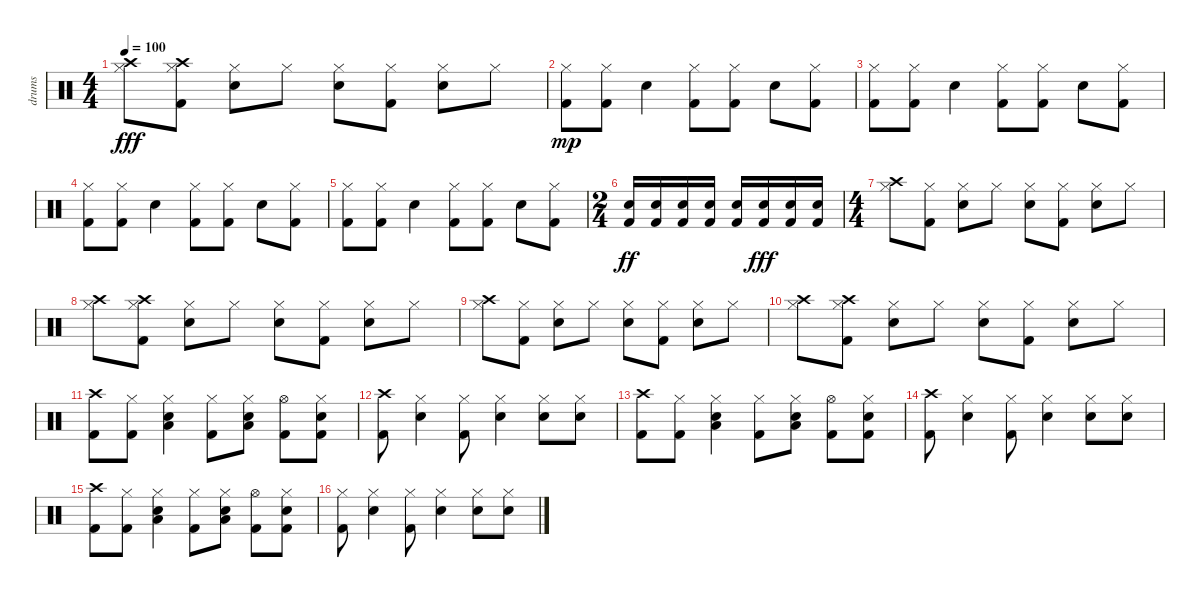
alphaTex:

\track ("drums" "drums") {instrument percussion}
\staff {score}
\articulation defaults
\ts (4 4)
\tempo 100
\clef neutral
\ks c
("Crash high (hit)" "Hi-Hat (closed)").8{dy fff} ("Crash high (hit)" "Hi-Hat (closed)" "Kick (hit) 2").8 ("Hi-Hat (closed)" "Electric Snare (hit)").8 "Hi-Hat (closed)".8 ("Hi-Hat (closed)" "Electric Snare (hit)").8 ("Hi-Hat (closed)" "Kick (hit) 2").8 ("Hi-Hat (closed)" "Electric Snare (hit)").8 "Hi-Hat (closed)".8 |
("Hi-Hat (closed)" "Kick (hit) 2").8{dy mp} ("Hi-Hat (closed)" "Kick (hit) 2").8 "Electric Snare (hit)".4 ("Hi-Hat (closed)" "Kick (hit) 2").8 ("Hi-Hat (closed)" "Kick (hit) 2").8 "Electric Snare (hit)".8 ("Hi-Hat (closed)" "Kick (hit) 2").8 |
("Hi-Hat (closed)" "Kick (hit) 2").8 ("Hi-Hat (closed)" "Kick (hit) 2").8 "Electric Snare (hit)".4 ("Hi-Hat (closed)" "Kick (hit) 2").8 ("Hi-Hat (closed)" "Kick (hit) 2").8 "Electric Snare (hit)".8 ("Hi-Hat (closed)" "Kick (hit) 2").8 |
("Hi-Hat (closed)" "Kick (hit) 2").8 ("Hi-Hat (closed)" "Kick (hit) 2").8 "Electric Snare (hit)".4 ("Hi-Hat (closed)" "Kick (hit) 2").8 ("Hi-Hat (closed)" "Kick (hit) 2").8 "Electric Snare (hit)".8 ("Hi-Hat (closed)" "Kick (hit) 2").8 |
("Hi-Hat (closed)" "Kick (hit) 2").8 ("Hi-Hat (closed)" "Kick (hit) 2").8 "Electric Snare (hit)".4 ("Hi-Hat (closed)" "Kick (hit) 2").8 ("Hi-Hat (closed)" "Kick (hit) 2").8 "Electric Snare (hit)".8 ("Hi-Hat (closed)" "Kick (hit) 2").8 |
\ts (2 4)
("Electric Snare (hit)" "Kick (hit) 2").16{dy ff} ("Electric Snare (hit)" "Kick (hit) 2").16 ("Electric Snare (hit)" "Kick (hit) 2").16 ("Electric Snare (hit)" "Kick (hit) 2").16 ("Electric Snare (hit)" "Kick (hit) 2").16 ("Electric Snare (hit)" "Kick (hit) 2").16{dy fff} ("Electric Snare (hit)" "Kick (hit) 2").16 ("Electric Snare (hit)" "Kick (hit) 2").16 |
\ts (4 4)
("Crash high (hit)" "Hi-Hat (closed)").8 ("Hi-Hat (closed)" "Kick (hit) 2").8 ("Hi-Hat (closed)" "Electric Snare (hit)").8 "Hi-Hat (closed)".8 ("Hi-Hat (closed)" "Electric Snare (hit)").8 ("Hi-Hat (closed)" "Kick (hit) 2").8 ("Hi-Hat (closed)" "Electric Snare (hit)").8 "Hi-Hat (closed)".8 |
("Crash high (hit)" "Hi-Hat (closed)").8 ("Crash high (hit)" "Hi-Hat (closed)" "Kick (hit) 2").8 ("Hi-Hat (closed)" "Electric Snare (hit)").8 "Hi-Hat (closed)".8 ("Hi-Hat (closed)" "Electric Snare (hit)").8 ("Hi-Hat (closed)" "Kick (hit) 2").8 ("Hi-Hat (closed)" "Electric Snare (hit)").8 "Hi-Hat (closed)".8 |
("Crash high (hit)" "Hi-Hat (closed)").8 ("Hi-Hat (closed)" "Kick (hit) 2").8 ("Hi-Hat (closed)" "Electric Snare (hit)").8 "Hi-Hat (closed)".8 ("Hi-Hat (closed)" "Electric Snare (hit)").8 ("Hi-Hat (closed)" "Kick (hit) 2").8 ("Hi-Hat (closed)" "Electric Snare (hit)").8 "Hi-Hat (closed)".8 |
("Crash high (hit)" "Hi-Hat (closed)").8 ("Crash high (hit)" "Hi-Hat (closed)" "Kick (hit) 2").8 ("Hi-Hat (closed)" "Electric Snare (hit)").8 "Hi-Hat (closed)".8 ("Hi-Hat (closed)" "Electric Snare (hit)").8 ("Hi-Hat (closed)" "Kick (hit) 2").8 ("Hi-Hat (closed)" "Electric Snare (hit)").8 "Hi-Hat (closed)".8 |
("Crash high (hit)" "Kick (hit) 2").8 ("Hi-Hat (closed)" "Kick (hit) 2").8 ("Hi-Hat (closed)" "Low Floor Tom (hit)" "Electric Snare (hit)").4 ("Hi-Hat (closed)" "Kick (hit) 2").8 ("Hi-Hat (closed)" "Low Floor Tom (hit)" "Electric Snare (hit)").8 ("Hi-Hat (open)" "Kick (hit) 2").8 ("Hi-Hat (closed)" "Electric Snare (hit)" "Kick (hit) 2").8 |
("Crash high (hit)" "Kick (hit) 2").8 ("Hi-Hat (closed)" "Electric Snare (hit)").4 ("Hi-Hat (closed)" "Kick (hit) 2").8 ("Hi-Hat (closed)" "Electric Snare (hit)").4 ("Hi-Hat (closed)" "Electric Snare (hit)").8 ("Hi-Hat (closed)" "Electric Snare (hit)").8 |
("Crash high (hit)" "Kick (hit) 2").8 ("Hi-Hat (closed)" "Kick (hit) 2").8 ("Hi-Hat (closed)" "Low Floor Tom (hit)" "Electric Snare (hit)").4 ("Hi-Hat (closed)" "Kick (hit) 2").8 ("Hi-Hat (closed)" "Low Floor Tom (hit)" "Electric Snare (hit)").8 ("Hi-Hat (open)" "Kick (hit) 2").8 ("Hi-Hat (closed)" "Electric Snare (hit)" "Kick (hit) 2").8 |
("Crash high (hit)" "Kick (hit) 2").8 ("Hi-Hat (closed)" "Electric Snare (hit)").4 ("Hi-Hat (closed)" "Kick (hit) 2").8 ("Hi-Hat (closed)" "Electric Snare (hit)").4 ("Hi-Hat (closed)" "Electric Snare (hit)").8 ("Hi-Hat (closed)" "Electric Snare (hit)").8 |
("Crash high (hit)" "Kick (hit) 2").8 ("Hi-Hat (closed)" "Kick (hit) 2").8 ("Hi-Hat (closed)" "Low Floor Tom (hit)" "Electric Snare (hit)").4 ("Hi-Hat (closed)" "Kick (hit) 2").8 ("Hi-Hat (closed)" "Low Floor Tom (hit)" "Electric Snare (hit)").8 ("Hi-Hat (open)" "Kick (hit) 2").8 ("Hi-Hat (closed)" "Electric Snare (hit)" "Kick (hit) 2").8 |
("Hi-Hat (closed)" "Kick (hit) 2").8 ("Hi-Hat (closed)" "Electric Snare (hit)").4 ("Hi-Hat (closed)" "Kick (hit) 2").8 ("Hi-Hat (closed)" "Electric Snare (hit)").4 ("Hi-Hat (closed)" "Electric Snare (hit)").8 ("Hi-Hat (closed)" "Electric Snare (hit)").8
